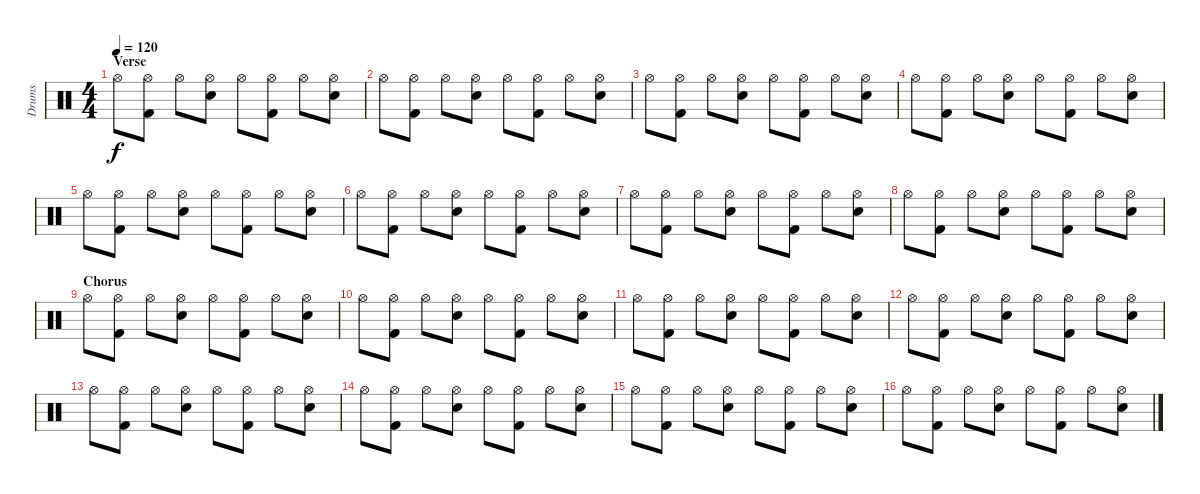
\track ("Drums" "Drums") {instrument percussion}
\staff {score}
\articulation defaults
\ts (4 4)
\section ("" "Verse")
\tempo 120
\clef neutral
\ks c "Hi-Hat (open)".8{dy f}
("Hi-Hat (open)" "Kick (hit) 2").8 "Hi-Hat (open)".8 ("Hi-Hat (open)" "Snare (hit) 2").8 "Hi-Hat (open)".8 ("Hi-Hat (open)" "Kick (hit) 2").8 "Hi-Hat (open)".8 ("Hi-Hat (open)" "Snare (hit) 2").8 |
"Hi-Hat (open)".8 ("Hi-Hat (open)" "Kick (hit) 2").8 "Hi-Hat (open)".8 ("Hi-Hat (open)" "Snare (hit) 2").8 "Hi-Hat (open)".8 ("Hi-Hat (open)" "Kick (hit) 2").8 "Hi-Hat (open)".8 ("Hi-Hat (open)" "Snare (hit) 2").8 |
"Hi-Hat (open)".8 ("Hi-Hat (open)" "Kick (hit) 2").8 "Hi-Hat (open)".8 ("Hi-Hat (open)" "Snare (hit) 2").8 "Hi-Hat (open)".8 ("Hi-Hat (open)" "Kick (hit) 2").8 "Hi-Hat (open)".8 ("Hi-Hat (open)" "Snare (hit) 2").8 |
"Hi-Hat (open)".8 ("Hi-Hat (open)" "Kick (hit) 2").8 "Hi-Hat (open)".8 ("Hi-Hat (open)" "Snare (hit) 2").8 "Hi-Hat (open)".8 ("Hi-Hat (open)" "Kick (hit) 2").8 "Hi-Hat (open)".8 ("Hi-Hat (open)" "Snare (hit) 2").8 |
"Hi-Hat (open)".8 ("Hi-Hat (open)" "Kick (hit) 2").8 "Hi-Hat (open)".8 ("Hi-Hat (open)" "Snare (hit) 2").8 "Hi-Hat (open)".8 ("Hi-Hat (open)" "Kick (hit) 2").8 "Hi-Hat (open)".8 ("Hi-Hat (open)" "Snare (hit) 2").8 |
"Hi-Hat (open)".8 ("Hi-Hat (open)" "Kick (hit) 2").8 "Hi-Hat (open)".8 ("Hi-Hat (open)" "Snare (hit) 2").8 "Hi-Hat (open)".8 ("Hi-Hat (open)" "Kick (hit) 2").8 "Hi-Hat (open)".8 ("Hi-Hat (open)" "Snare (hit) 2").8 |
"Hi-Hat (open)".8 ("Hi-Hat (open)" "Kick (hit) 2").8 "Hi-Hat (open)".8 ("Hi-Hat (open)" "Snare (hit) 2").8 "Hi-Hat (open)".8 ("Hi-Hat (open)" "Kick (hit) 2").8 "Hi-Hat (open)".8 ("Hi-Hat (open)" "Snare (hit) 2").8 |
"Hi-Hat (open)".8 ("Hi-Hat (open)" "Kick (hit) 2").8 "Hi-Hat (open)".8 ("Hi-Hat (open)" "Snare (hit) 2").8 "Hi-Hat (open)".8 ("Hi-Hat (open)" "Kick (hit) 2").8 "Hi-Hat (open)".8 ("Hi-Hat (open)" "Snare (hit) 2").8 |
\section ("" "Chorus")
"Hi-Hat (open)".8 ("Hi-Hat (open)" "Kick (hit) 2").8 "Hi-Hat (open)".8 ("Hi-Hat (open)" "Snare (hit) 2").8 "Hi-Hat (open)".8 ("Hi-Hat (open)" "Kick (hit) 2").8 "Hi-Hat (open)".8 ("Hi-Hat (open)" "Snare (hit) 2").8 |
"Hi-Hat (open)".8 ("Hi-Hat (open)" "Kick (hit) 2").8 "Hi-Hat (open)".8 ("Hi-Hat (open)" "Snare (hit) 2").8 "Hi-Hat (open)".8 ("Hi-Hat (open)" "Kick (hit) 2").8 "Hi-Hat (open)".8 ("Hi-Hat (open)" "Snare (hit) 2").8 |
"Hi-Hat (open)".8 ("Hi-Hat (open)" "Kick (hit) 2").8 "Hi-Hat (open)".8 ("Hi-Hat (open)" "Snare (hit) 2").8 "Hi-Hat (open)".8 ("Hi-Hat (open)" "Kick (hit) 2").8 "Hi-Hat (open)".8 ("Hi-Hat (open)" "Snare (hit) 2").8 |
"Hi-Hat (open)".8 ("Hi-Hat (open)" "Kick (hit) 2").8 "Hi-Hat (open)".8 ("Hi-Hat (open)" "Snare (hit) 2").8 "Hi-Hat (open)".8 ("Hi-Hat (open)" "Kick (hit) 2").8 "Hi-Hat (open)".8 ("Hi-Hat (open)" "Snare (hit) 2").8 |
"Hi-Hat (open)".8 ("Hi-Hat (open)" "Kick (hit) 2").8 "Hi-Hat (open)".8 ("Hi-Hat (open)" "Snare (hit) 2").8 "Hi-Hat (open)".8 ("Hi-Hat (open)" "Kick (hit) 2").8 "Hi-Hat (open)".8 ("Hi-Hat (open)" "Snare (hit) 2").8 |
"Hi-Hat (open)".8 ("Hi-Hat (open)" "Kick (hit) 2").8 "Hi-Hat (open)".8 ("Hi-Hat (open)" "Snare (hit) 2").8 "Hi-Hat (open)".8 ("Hi-Hat (open)" "Kick (hit) 2").8 "Hi-Hat (open)".8 ("Hi-Hat (open)" "Snare (hit) 2").8 |
"Hi-Hat (open)".8 ("Hi-Hat (open)" "Kick (hit) 2").8 "Hi-Hat (open)".8 ("Hi-Hat (open)" "Snare (hit) 2").8 "Hi-Hat (open)".8 ("Hi-Hat (open)" "Kick (hit) 2").8 "Hi-Hat (open)".8 ("Hi-Hat (open)" "Snare (hit) 2").8 |
"Hi-Hat (open)".8 ("Hi-Hat (open)" "Kick (hit) 2").8 "Hi-Hat (open)".8 ("Hi-Hat (open)" "Snare (hit) 2").8 "Hi-Hat (open)".8 ("Hi-Hat (open)" "Kick (hit) 2").8 "Hi-Hat (open)".8 ("Hi-Hat (open)" "Snare (hit) 2").8
